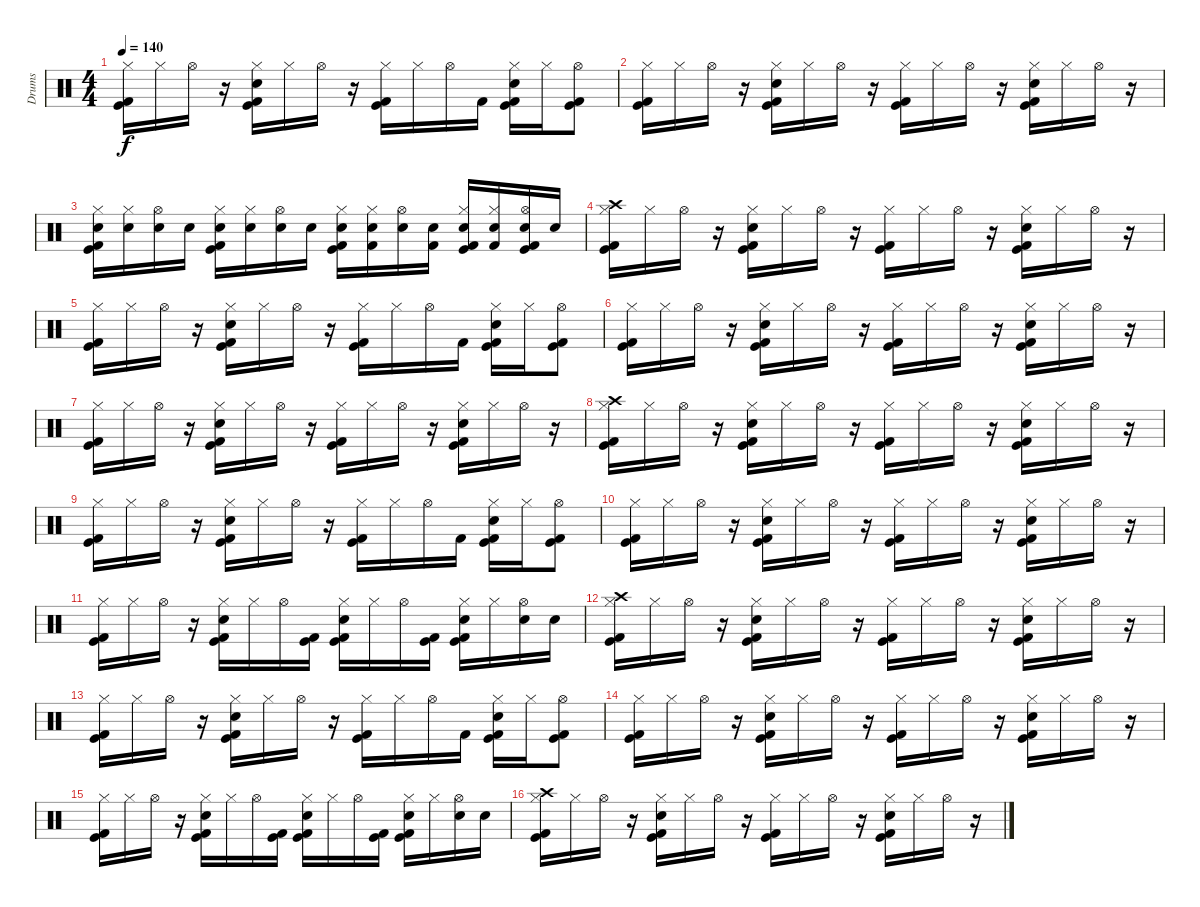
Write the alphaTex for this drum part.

\track ("Drums" "Drums") {instrument percussion}
\staff {score}
\articulation defaults
\ts (4 4)
\tempo 140
\clef neutral
\ks c
("Kick (hit) 2" "Hi-Hat (closed)" "Kick (hit)").16{dy f} "Hi-Hat (closed)".16 "Hi-Hat (open)".16 r.16 ("Kick (hit) 2" "Kick (hit)" "Hi-Hat (closed)" "Snare (hit) 2").16 "Hi-Hat (closed)".16 "Hi-Hat (open)".16 r.16 ("Kick (hit) 2" "Hi-Hat (closed)" "Kick (hit)").16 "Hi-Hat (closed)".16 "Hi-Hat (open)".16 "Kick (hit) 2".16 ("Hi-Hat (closed)" "Snare (hit) 2" "Kick (hit) 2" "Kick (hit)").16 "Hi-Hat (closed)".16 ("Hi-Hat (open)" "Kick (hit)" "Kick (hit) 2").8 |
("Kick (hit)" "Kick (hit) 2" "Hi-Hat (closed)").16 "Hi-Hat (closed)".16 "Hi-Hat (open)".16 r.16 ("Hi-Hat (closed)" "Kick (hit)" "Kick (hit) 2" "Snare (hit) 2").16 "Hi-Hat (closed)".16 "Hi-Hat (open)".16 r.16 ("Hi-Hat (closed)" "Kick (hit) 2" "Kick (hit)").16 "Hi-Hat (closed)".16 "Hi-Hat (open)".16 r.16 ("Kick (hit) 2" "Hi-Hat (closed)" "Kick (hit)" "Snare (hit) 2").16 "Hi-Hat (closed)".16 "Hi-Hat (open)".16 r.16 |
("Snare (hit) 2" "Kick (hit)" "Hi-Hat (closed)" "Kick (hit) 2").16 ("Snare (hit) 2" "Hi-Hat (closed)").16 ("Snare (hit) 2" "Hi-Hat (open)").16 "Snare (hit) 2".16 ("Hi-Hat (closed)" "Kick (hit) 2" "Kick (hit)" "Snare (hit) 2").16 ("Snare (hit) 2" "Hi-Hat (closed)").16 ("Snare (hit) 2" "Hi-Hat (open)").16 "Snare (hit) 2".16 ("Snare (hit) 2" "Kick (hit) 2" "Kick (hit)" "Hi-Hat (closed)").16 ("Snare (hit) 2" "Kick (hit) 2" "Hi-Hat (closed)").16 ("Snare (hit) 2" "Hi-Hat (open)").16 ("Snare (hit) 2" "Kick (hit) 2").16 ("Kick (hit) 2" "Hi-Hat (closed)" "Kick (hit)" "Snare (hit) 2").16 ("Snare (hit) 2" "Hi-Hat (closed)" "Kick (hit) 2").16 ("Snare (hit) 2" "Kick (hit)" "Hi-Hat (open)" "Kick (hit) 2").16 "Snare (hit) 2".16 |
("Crash high (hit)" "Kick (hit)" "Kick (hit) 2" "Hi-Hat (closed)").16 "Hi-Hat (closed)".16 "Hi-Hat (open)".16 r.16 ("Snare (hit) 2" "Hi-Hat (closed)" "Kick (hit) 2" "Kick (hit)").16 "Hi-Hat (closed)".16 "Hi-Hat (open)".16 r.16 ("Kick (hit)" "Kick (hit) 2" "Hi-Hat (closed)").16 "Hi-Hat (closed)".16 "Hi-Hat (open)".16 r.16 ("Kick (hit) 2" "Hi-Hat (closed)" "Snare (hit) 2" "Kick (hit)").16 "Hi-Hat (closed)".16 "Hi-Hat (open)".16 r.16 |
("Kick (hit) 2" "Hi-Hat (closed)" "Kick (hit)").16 "Hi-Hat (closed)".16 "Hi-Hat (open)".16 r.16 ("Kick (hit) 2" "Kick (hit)" "Hi-Hat (closed)" "Snare (hit) 2").16 "Hi-Hat (closed)".16 "Hi-Hat (open)".16 r.16 ("Kick (hit) 2" "Hi-Hat (closed)" "Kick (hit)").16 "Hi-Hat (closed)".16 "Hi-Hat (open)".16 "Kick (hit) 2".16 ("Hi-Hat (closed)" "Snare (hit) 2" "Kick (hit) 2" "Kick (hit)").16 "Hi-Hat (closed)".16 ("Hi-Hat (open)" "Kick (hit)" "Kick (hit) 2").8 |
("Kick (hit)" "Kick (hit) 2" "Hi-Hat (closed)").16 "Hi-Hat (closed)".16 "Hi-Hat (open)".16 r.16 ("Hi-Hat (closed)" "Kick (hit)" "Kick (hit) 2" "Snare (hit) 2").16 "Hi-Hat (closed)".16 "Hi-Hat (open)".16 r.16 ("Hi-Hat (closed)" "Kick (hit) 2" "Kick (hit)").16 "Hi-Hat (closed)".16 "Hi-Hat (open)".16 r.16 ("Kick (hit) 2" "Hi-Hat (closed)" "Kick (hit)" "Snare (hit) 2").16 "Hi-Hat (closed)".16 "Hi-Hat (open)".16 r.16 |
("Kick (hit)" "Kick (hit) 2" "Hi-Hat (closed)").16 "Hi-Hat (closed)".16 "Hi-Hat (open)".16 r.16 ("Hi-Hat (closed)" "Kick (hit)" "Kick (hit) 2" "Snare (hit) 2").16 "Hi-Hat (closed)".16 "Hi-Hat (open)".16 r.16 ("Hi-Hat (closed)" "Kick (hit) 2" "Kick (hit)").16 "Hi-Hat (closed)".16 "Hi-Hat (open)".16 r.16 ("Kick (hit) 2" "Hi-Hat (closed)" "Kick (hit)" "Snare (hit) 2").16 "Hi-Hat (closed)".16 "Hi-Hat (open)".16 r.16 |
("Crash high (hit)" "Kick (hit)" "Kick (hit) 2" "Hi-Hat (closed)").16 "Hi-Hat (closed)".16 "Hi-Hat (open)".16 r.16 ("Snare (hit) 2" "Hi-Hat (closed)" "Kick (hit) 2" "Kick (hit)").16 "Hi-Hat (closed)".16 "Hi-Hat (open)".16 r.16 ("Kick (hit)" "Kick (hit) 2" "Hi-Hat (closed)").16 "Hi-Hat (closed)".16 "Hi-Hat (open)".16 r.16 ("Kick (hit) 2" "Hi-Hat (closed)" "Snare (hit) 2" "Kick (hit)").16 "Hi-Hat (closed)".16 "Hi-Hat (open)".16 r.16 |
("Kick (hit) 2" "Hi-Hat (closed)" "Kick (hit)").16 "Hi-Hat (closed)".16 "Hi-Hat (open)".16 r.16 ("Kick (hit) 2" "Kick (hit)" "Hi-Hat (closed)" "Snare (hit) 2").16 "Hi-Hat (closed)".16 "Hi-Hat (open)".16 r.16 ("Kick (hit) 2" "Hi-Hat (closed)" "Kick (hit)").16 "Hi-Hat (closed)".16 "Hi-Hat (open)".16 "Kick (hit) 2".16 ("Hi-Hat (closed)" "Snare (hit) 2" "Kick (hit) 2" "Kick (hit)").16 "Hi-Hat (closed)".16 ("Hi-Hat (open)" "Kick (hit)" "Kick (hit) 2").8 |
("Kick (hit)" "Kick (hit) 2" "Hi-Hat (closed)").16 "Hi-Hat (closed)".16 "Hi-Hat (open)".16 r.16 ("Hi-Hat (closed)" "Kick (hit)" "Kick (hit) 2" "Snare (hit) 2").16 "Hi-Hat (closed)".16 "Hi-Hat (open)".16 r.16 ("Hi-Hat (closed)" "Kick (hit) 2" "Kick (hit)").16 "Hi-Hat (closed)".16 "Hi-Hat (open)".16 r.16 ("Kick (hit) 2" "Hi-Hat (closed)" "Kick (hit)" "Snare (hit) 2").16 "Hi-Hat (closed)".16 "Hi-Hat (open)".16 r.16 |
("Kick (hit)" "Kick (hit) 2" "Hi-Hat (closed)").16 "Hi-Hat (closed)".16 "Hi-Hat (open)".16 r.16 ("Hi-Hat (closed)" "Kick (hit)" "Kick (hit) 2" "Snare (hit) 2").16 "Hi-Hat (closed)".16 "Hi-Hat (open)".16 ("Kick (hit) 2" "Kick (hit)").16 ("Snare (hit) 2" "Hi-Hat (closed)" "Kick (hit) 2" "Kick (hit)").16 "Hi-Hat (closed)".16 "Hi-Hat (open)".16 ("Kick (hit) 2" "Kick (hit)").16 ("Kick (hit) 2" "Hi-Hat (closed)" "Kick (hit)" "Snare (hit) 2").16 "Hi-Hat (closed)".16 ("Snare (hit) 2" "Hi-Hat (open)").16 "Snare (hit) 2".16 |
("Crash high (hit)" "Kick (hit)" "Kick (hit) 2" "Hi-Hat (closed)").16 "Hi-Hat (closed)".16 "Hi-Hat (open)".16 r.16 ("Snare (hit) 2" "Hi-Hat (closed)" "Kick (hit) 2" "Kick (hit)").16 "Hi-Hat (closed)".16 "Hi-Hat (open)".16 r.16 ("Kick (hit)" "Kick (hit) 2" "Hi-Hat (closed)").16 "Hi-Hat (closed)".16 "Hi-Hat (open)".16 r.16 ("Kick (hit) 2" "Hi-Hat (closed)" "Snare (hit) 2" "Kick (hit)").16 "Hi-Hat (closed)".16 "Hi-Hat (open)".16 r.16 |
("Kick (hit) 2" "Hi-Hat (closed)" "Kick (hit)").16 "Hi-Hat (closed)".16 "Hi-Hat (open)".16 r.16 ("Kick (hit) 2" "Kick (hit)" "Hi-Hat (closed)" "Snare (hit) 2").16 "Hi-Hat (closed)".16 "Hi-Hat (open)".16 r.16 ("Kick (hit) 2" "Hi-Hat (closed)" "Kick (hit)").16 "Hi-Hat (closed)".16 "Hi-Hat (open)".16 "Kick (hit) 2".16 ("Hi-Hat (closed)" "Snare (hit) 2" "Kick (hit) 2" "Kick (hit)").16 "Hi-Hat (closed)".16 ("Hi-Hat (open)" "Kick (hit)" "Kick (hit) 2").8 |
("Kick (hit)" "Kick (hit) 2" "Hi-Hat (closed)").16 "Hi-Hat (closed)".16 "Hi-Hat (open)".16 r.16 ("Hi-Hat (closed)" "Kick (hit)" "Kick (hit) 2" "Snare (hit) 2").16 "Hi-Hat (closed)".16 "Hi-Hat (open)".16 r.16 ("Hi-Hat (closed)" "Kick (hit) 2" "Kick (hit)").16 "Hi-Hat (closed)".16 "Hi-Hat (open)".16 r.16 ("Kick (hit) 2" "Hi-Hat (closed)" "Kick (hit)" "Snare (hit) 2").16 "Hi-Hat (closed)".16 "Hi-Hat (open)".16 r.16 |
("Kick (hit)" "Kick (hit) 2" "Hi-Hat (closed)").16 "Hi-Hat (closed)".16 "Hi-Hat (open)".16 r.16 ("Hi-Hat (closed)" "Kick (hit)" "Kick (hit) 2" "Snare (hit) 2").16 "Hi-Hat (closed)".16 "Hi-Hat (open)".16 ("Kick (hit) 2" "Kick (hit)").16 ("Snare (hit) 2" "Hi-Hat (closed)" "Kick (hit) 2" "Kick (hit)").16 "Hi-Hat (closed)".16 "Hi-Hat (open)".16 ("Kick (hit) 2" "Kick (hit)").16 ("Kick (hit) 2" "Hi-Hat (closed)" "Kick (hit)" "Snare (hit) 2").16 "Hi-Hat (closed)".16 ("Snare (hit) 2" "Hi-Hat (open)").16 "Snare (hit) 2".16 |
("Crash high (hit)" "Kick (hit)" "Kick (hit) 2" "Hi-Hat (closed)").16 "Hi-Hat (closed)".16 "Hi-Hat (open)".16 r.16 ("Snare (hit) 2" "Hi-Hat (closed)" "Kick (hit) 2" "Kick (hit)").16 "Hi-Hat (closed)".16 "Hi-Hat (open)".16 r.16 ("Kick (hit)" "Kick (hit) 2" "Hi-Hat (closed)").16 "Hi-Hat (closed)".16 "Hi-Hat (open)".16 r.16 ("Kick (hit) 2" "Hi-Hat (closed)" "Snare (hit) 2" "Kick (hit)").16 "Hi-Hat (closed)".16 "Hi-Hat (open)".16 r.16
